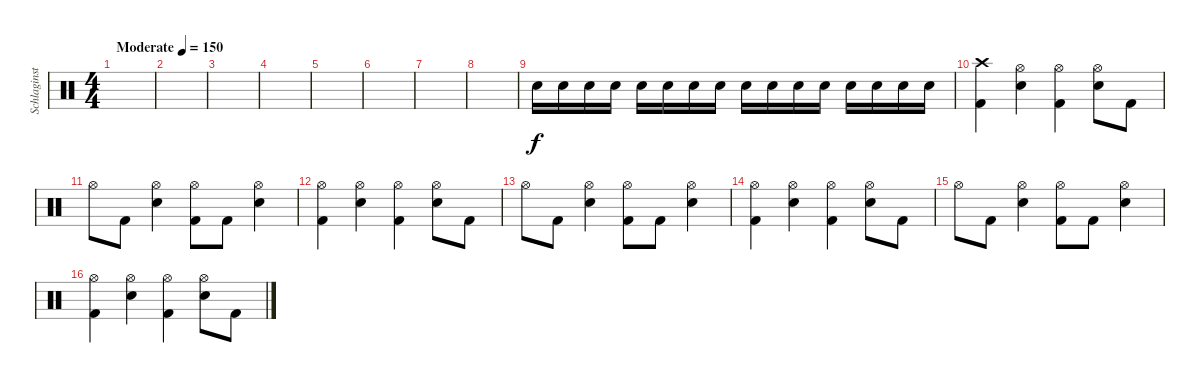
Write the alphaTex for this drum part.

\track ("Schlaginstrumente - Auswahl" "Schlaginst") {instrument percussion}
\staff {score}
\articulation defaults
\ts (4 4)
\tempo (150 "Moderate")
\clef neutral
\ks c
|
|
|
|
|
|
|
|
"Snare (hit) 2".16{volume 12} "Snare (hit) 2".16 "Snare (hit) 2".16 "Snare (hit) 2".16 "Snare (hit) 2".16 "Snare (hit) 2".16 "Snare (hit) 2".16 "Snare (hit) 2".16 "Snare (hit) 2".16 "Snare (hit) 2".16 "Snare (hit) 2".16 "Snare (hit) 2".16 "Snare (hit) 2".16 "Snare (hit) 2".16 "Snare (hit) 2".16 "Snare (hit) 2".16 |
("Crash high (hit)" "Kick (hit) 2").4 ("Snare (hit) 2" "Hi-Hat (open)").4 ("Kick (hit) 2" "Hi-Hat (open)").4 ("Snare (hit) 2" "Hi-Hat (open)").8 "Kick (hit) 2".8 |
"Hi-Hat (open)".8 "Kick (hit) 2".8 ("Snare (hit) 2" "Hi-Hat (open)").4 ("Kick (hit) 2" "Hi-Hat (open)").8 "Kick (hit) 2".8 ("Snare (hit) 2" "Hi-Hat (open)").4 |
("Hi-Hat (open)" "Kick (hit) 2").4 ("Snare (hit) 2" "Hi-Hat (open)").4 ("Kick (hit) 2" "Hi-Hat (open)").4 ("Snare (hit) 2" "Hi-Hat (open)").8 "Kick (hit) 2".8 |
"Hi-Hat (open)".8 "Kick (hit) 2".8 ("Snare (hit) 2" "Hi-Hat (open)").4 ("Kick (hit) 2" "Hi-Hat (open)").8 "Kick (hit) 2".8 ("Snare (hit) 2" "Hi-Hat (open)").4 |
("Hi-Hat (open)" "Kick (hit) 2").4 ("Snare (hit) 2" "Hi-Hat (open)").4 ("Kick (hit) 2" "Hi-Hat (open)").4 ("Snare (hit) 2" "Hi-Hat (open)").8 "Kick (hit) 2".8 |
"Hi-Hat (open)".8 "Kick (hit) 2".8 ("Snare (hit) 2" "Hi-Hat (open)").4 ("Kick (hit) 2" "Hi-Hat (open)").8 "Kick (hit) 2".8 ("Snare (hit) 2" "Hi-Hat (open)").4 |
("Hi-Hat (open)" "Kick (hit) 2").4 ("Snare (hit) 2" "Hi-Hat (open)").4 ("Kick (hit) 2" "Hi-Hat (open)").4 ("Snare (hit) 2" "Hi-Hat (open)").8 "Kick (hit) 2".8
